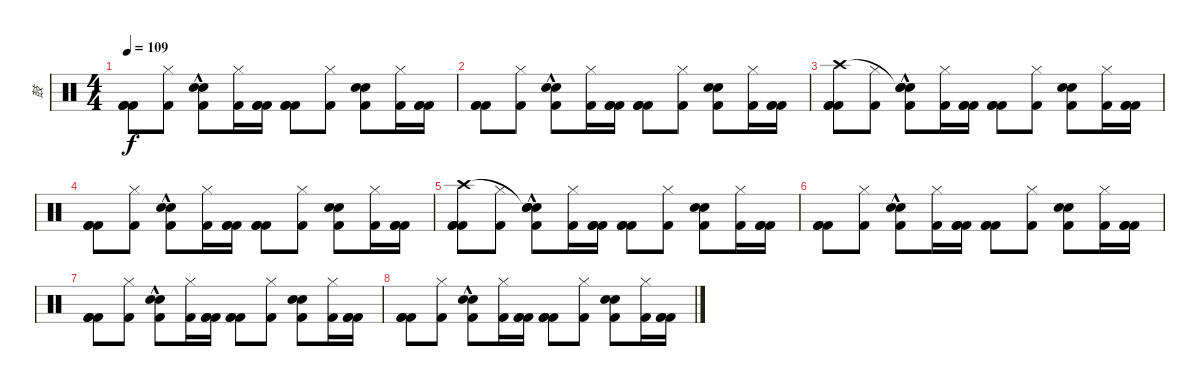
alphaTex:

\track ("鼓" "鼓") {instrument percussion}
\staff {score}
\articulation defaults
\ts (4 4)
\tempo 109
\clef neutral
\ks c
("Kick (hit) 2" "Kick (hit) 2" "Kick (hit) 2").8{dy f} ("Hi-Hat (closed)" "Kick (hit) 2").8 ("Snare (hit) 2" "Snare (hit) 2" "Kick (hit) 2"{hac}).8 ("Hi-Hat (closed)" "Kick (hit) 2").16 ("Kick (hit) 2" "Kick (hit) 2" "Kick (hit) 2").16 ("Kick (hit) 2" "Kick (hit) 2" "Kick (hit) 2").8 ("Hi-Hat (closed)" "Kick (hit) 2").8 ("Snare (hit) 2" "Snare (hit) 2" "Kick (hit) 2").8 ("Hi-Hat (closed)" "Kick (hit) 2").16 ("Kick (hit) 2" "Kick (hit) 2" "Kick (hit) 2").16 |
("Kick (hit) 2" "Kick (hit) 2" "Kick (hit) 2").8 ("Hi-Hat (closed)" "Kick (hit) 2").8 ("Snare (hit) 2" "Snare (hit) 2" "Kick (hit) 2"{hac}).8 ("Hi-Hat (closed)" "Kick (hit) 2").16 ("Kick (hit) 2" "Kick (hit) 2" "Kick (hit) 2").16 ("Kick (hit) 2" "Kick (hit) 2" "Kick (hit) 2").8 ("Hi-Hat (closed)" "Kick (hit) 2").8 ("Snare (hit) 2" "Snare (hit) 2" "Kick (hit) 2").8 ("Hi-Hat (closed)" "Kick (hit) 2").16 ("Kick (hit) 2" "Kick (hit) 2" "Kick (hit) 2").16 |
("Kick (hit) 2" "Kick (hit) 2" "Kick (hit) 2" "Crash high (hit)").8 ("Hi-Hat (closed)" "Kick (hit) 2").8 ("Snare (hit) 2" "Snare (hit) 2" "Kick (hit) 2"{hac} "Snare (hit)"{t}).8 ("Hi-Hat (closed)" "Kick (hit) 2").16 ("Kick (hit) 2" "Kick (hit) 2" "Kick (hit) 2").16 ("Kick (hit) 2" "Kick (hit) 2" "Kick (hit) 2").8 ("Hi-Hat (closed)" "Kick (hit) 2").8 ("Snare (hit) 2" "Snare (hit) 2" "Kick (hit) 2").8 ("Hi-Hat (closed)" "Kick (hit) 2").16 ("Kick (hit) 2" "Kick (hit) 2" "Kick (hit) 2").16 |
("Kick (hit) 2" "Kick (hit) 2" "Kick (hit) 2").8 ("Hi-Hat (closed)" "Kick (hit) 2").8 ("Snare (hit) 2" "Snare (hit) 2" "Kick (hit) 2"{hac}).8 ("Hi-Hat (closed)" "Kick (hit) 2").16 ("Kick (hit) 2" "Kick (hit) 2" "Kick (hit) 2").16 ("Kick (hit) 2" "Kick (hit) 2" "Kick (hit) 2").8 ("Hi-Hat (closed)" "Kick (hit) 2").8 ("Snare (hit) 2" "Snare (hit) 2" "Kick (hit) 2").8 ("Hi-Hat (closed)" "Kick (hit) 2").16 ("Kick (hit) 2" "Kick (hit) 2" "Kick (hit) 2").16 |
("Kick (hit) 2" "Kick (hit) 2" "Kick (hit) 2" "Crash high (hit)").8 ("Hi-Hat (closed)" "Kick (hit) 2").8 ("Snare (hit) 2" "Snare (hit) 2" "Kick (hit) 2"{hac} "Snare (hit)"{t}).8 ("Hi-Hat (closed)" "Kick (hit) 2").16 ("Kick (hit) 2" "Kick (hit) 2" "Kick (hit) 2").16 ("Kick (hit) 2" "Kick (hit) 2" "Kick (hit) 2").8 ("Hi-Hat (closed)" "Kick (hit) 2").8 ("Snare (hit) 2" "Snare (hit) 2" "Kick (hit) 2").8 ("Hi-Hat (closed)" "Kick (hit) 2").16 ("Kick (hit) 2" "Kick (hit) 2" "Kick (hit) 2").16 |
("Kick (hit) 2" "Kick (hit) 2" "Kick (hit) 2").8 ("Hi-Hat (closed)" "Kick (hit) 2").8 ("Snare (hit) 2" "Snare (hit) 2" "Kick (hit) 2"{hac}).8 ("Hi-Hat (closed)" "Kick (hit) 2").16 ("Kick (hit) 2" "Kick (hit) 2" "Kick (hit) 2").16 ("Kick (hit) 2" "Kick (hit) 2" "Kick (hit) 2").8 ("Hi-Hat (closed)" "Kick (hit) 2").8 ("Snare (hit) 2" "Snare (hit) 2" "Kick (hit) 2").8 ("Hi-Hat (closed)" "Kick (hit) 2").16 ("Kick (hit) 2" "Kick (hit) 2" "Kick (hit) 2").16 |
("Kick (hit) 2" "Kick (hit) 2" "Kick (hit) 2").8 ("Hi-Hat (closed)" "Kick (hit) 2").8 ("Snare (hit) 2" "Snare (hit) 2" "Kick (hit) 2"{hac}).8 ("Hi-Hat (closed)" "Kick (hit) 2").16 ("Kick (hit) 2" "Kick (hit) 2" "Kick (hit) 2").16 ("Kick (hit) 2" "Kick (hit) 2" "Kick (hit) 2").8 ("Hi-Hat (closed)" "Kick (hit) 2").8 ("Snare (hit) 2" "Snare (hit) 2" "Kick (hit) 2").8 ("Hi-Hat (closed)" "Kick (hit) 2").16 ("Kick (hit) 2" "Kick (hit) 2" "Kick (hit) 2").16 |
("Kick (hit) 2" "Kick (hit) 2" "Kick (hit) 2").8 ("Hi-Hat (closed)" "Kick (hit) 2").8 ("Snare (hit) 2" "Snare (hit) 2" "Kick (hit) 2"{hac}).8 ("Hi-Hat (closed)" "Kick (hit) 2").16 ("Kick (hit) 2" "Kick (hit) 2" "Kick (hit) 2").16 ("Kick (hit) 2" "Kick (hit) 2" "Kick (hit) 2").8 ("Hi-Hat (closed)" "Kick (hit) 2").8 ("Snare (hit) 2" "Snare (hit) 2" "Kick (hit) 2").8 ("Hi-Hat (closed)" "Kick (hit) 2").16 ("Kick (hit) 2" "Kick (hit) 2" "Kick (hit) 2").16
